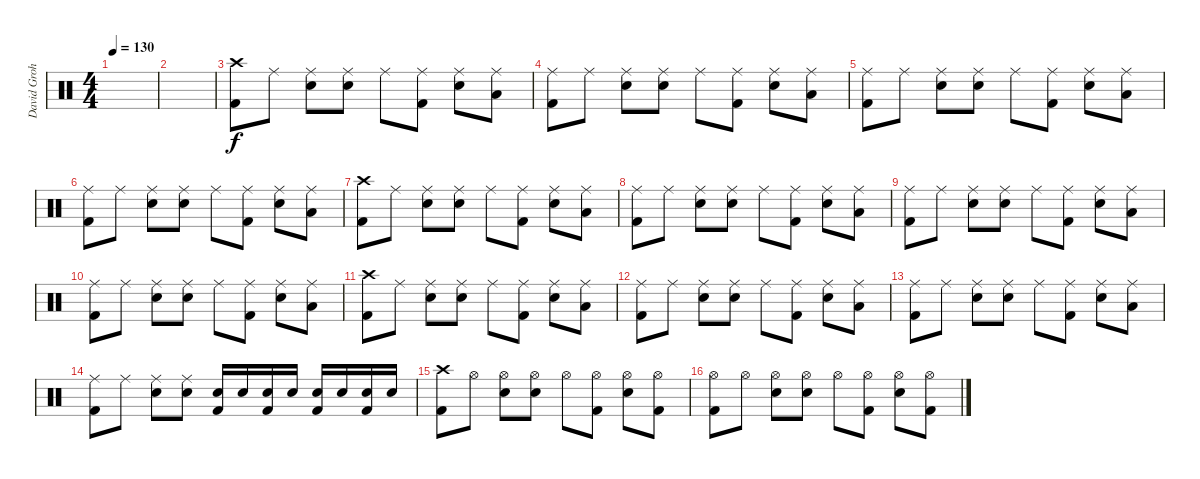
\track ("David Grohl" "David Groh") {instrument percussion}
\staff {score}
\articulation defaults
\ts (4 4)
\tempo 130
\clef neutral
\ks c
|
|
("Crash high (hit)" "Kick (hit) 2").8 "Ride (middle)".8 ("Ride (middle)" "Electric Snare (hit)").8 ("Ride (middle)" "Electric Snare (hit)").8 "Ride (middle)".8 ("Ride (middle)" "Kick (hit) 2").8 ("Ride (middle)" "Electric Snare (hit)").8 ("Ride (middle)" "Low Tom (hit)").8 |
("Ride (middle)" "Kick (hit) 2").8 "Ride (middle)".8 ("Ride (middle)" "Electric Snare (hit)").8 ("Ride (middle)" "Electric Snare (hit)").8 "Ride (middle)".8 ("Ride (middle)" "Kick (hit) 2").8 ("Ride (middle)" "Electric Snare (hit)").8 ("Ride (middle)" "Low Tom (hit)").8 |
("Ride (middle)" "Kick (hit) 2").8 "Ride (middle)".8 ("Ride (middle)" "Electric Snare (hit)").8 ("Ride (middle)" "Electric Snare (hit)").8 "Ride (middle)".8 ("Ride (middle)" "Kick (hit) 2").8 ("Ride (middle)" "Electric Snare (hit)").8 ("Ride (middle)" "Low Tom (hit)").8 |
("Ride (middle)" "Kick (hit) 2").8 "Ride (middle)".8 ("Ride (middle)" "Electric Snare (hit)").8 ("Ride (middle)" "Electric Snare (hit)").8 "Ride (middle)".8 ("Ride (middle)" "Kick (hit) 2").8 ("Ride (middle)" "Electric Snare (hit)").8 ("Ride (middle)" "Low Tom (hit)").8 |
("Crash high (hit)" "Kick (hit) 2").8 "Ride (middle)".8 ("Ride (middle)" "Electric Snare (hit)").8 ("Ride (middle)" "Electric Snare (hit)").8 "Ride (middle)".8 ("Ride (middle)" "Kick (hit) 2").8 ("Ride (middle)" "Electric Snare (hit)").8 ("Ride (middle)" "Low Tom (hit)").8 |
("Ride (middle)" "Kick (hit) 2").8 "Ride (middle)".8 ("Ride (middle)" "Electric Snare (hit)").8 ("Ride (middle)" "Electric Snare (hit)").8 "Ride (middle)".8 ("Ride (middle)" "Kick (hit) 2").8 ("Ride (middle)" "Electric Snare (hit)").8 ("Ride (middle)" "Low Tom (hit)").8 |
("Ride (middle)" "Kick (hit) 2").8 "Ride (middle)".8 ("Ride (middle)" "Electric Snare (hit)").8 ("Ride (middle)" "Electric Snare (hit)").8 "Ride (middle)".8 ("Ride (middle)" "Kick (hit) 2").8 ("Ride (middle)" "Electric Snare (hit)").8 ("Ride (middle)" "Low Tom (hit)").8 |
("Ride (middle)" "Kick (hit) 2").8 "Ride (middle)".8 ("Ride (middle)" "Electric Snare (hit)").8 ("Ride (middle)" "Electric Snare (hit)").8 "Ride (middle)".8 ("Ride (middle)" "Kick (hit) 2").8 ("Ride (middle)" "Electric Snare (hit)").8 ("Ride (middle)" "Low Tom (hit)").8 |
("Crash high (hit)" "Kick (hit) 2").8 "Ride (middle)".8 ("Ride (middle)" "Electric Snare (hit)").8 ("Ride (middle)" "Electric Snare (hit)").8 "Ride (middle)".8 ("Ride (middle)" "Kick (hit) 2").8 ("Ride (middle)" "Electric Snare (hit)").8 ("Ride (middle)" "Low Tom (hit)").8 |
("Ride (middle)" "Kick (hit) 2").8 "Ride (middle)".8 ("Ride (middle)" "Electric Snare (hit)").8 ("Ride (middle)" "Electric Snare (hit)").8 "Ride (middle)".8 ("Ride (middle)" "Kick (hit) 2").8 ("Ride (middle)" "Electric Snare (hit)").8 ("Ride (middle)" "Low Tom (hit)").8 |
("Ride (middle)" "Kick (hit) 2").8 "Ride (middle)".8 ("Ride (middle)" "Electric Snare (hit)").8 ("Ride (middle)" "Electric Snare (hit)").8 "Ride (middle)".8 ("Ride (middle)" "Kick (hit) 2").8 ("Ride (middle)" "Electric Snare (hit)").8 ("Ride (middle)" "Low Tom (hit)").8 |
("Ride (middle)" "Kick (hit) 2").8 "Ride (middle)".8 ("Ride (middle)" "Electric Snare (hit)").8 ("Ride (middle)" "Electric Snare (hit)").8 ("Electric Snare (hit)" "Kick (hit) 2").16 "Electric Snare (hit)".16 ("Electric Snare (hit)" "Kick (hit) 2").16 "Electric Snare (hit)".16 ("Electric Snare (hit)" "Kick (hit) 2").16 "Electric Snare (hit)".16 ("Electric Snare (hit)" "Kick (hit) 2").16 "Electric Snare (hit)".16 |
("Crash high (hit)" "Kick (hit) 2").8 "Hi-Hat (open)".8 ("Hi-Hat (open)" "Electric Snare (hit)").8 ("Hi-Hat (open)" "Electric Snare (hit)").8 "Hi-Hat (open)".8 ("Hi-Hat (open)" "Kick (hit) 2").8 ("Hi-Hat (open)" "Electric Snare (hit)").8 ("Hi-Hat (open)" "Kick (hit) 2").8 |
("Hi-Hat (open)" "Kick (hit) 2").8 "Hi-Hat (open)".8 ("Hi-Hat (open)" "Electric Snare (hit)").8 ("Hi-Hat (open)" "Electric Snare (hit)").8 "Hi-Hat (open)".8 ("Hi-Hat (open)" "Kick (hit) 2").8 ("Hi-Hat (open)" "Electric Snare (hit)").8 ("Hi-Hat (open)" "Kick (hit) 2").8
